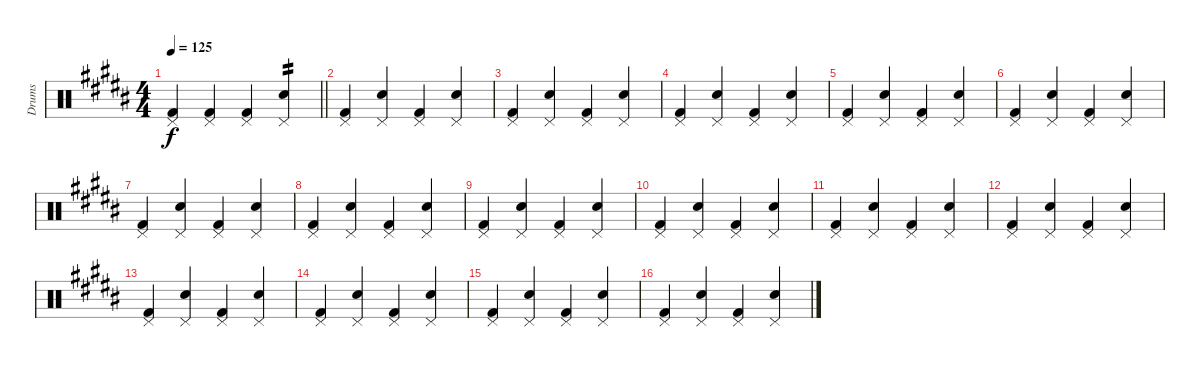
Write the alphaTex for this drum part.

\track ("Drums" "Drums") {instrument percussion}
\staff {score}
\articulation defaults
\ts (4 4)
\tempo 125
\clef neutral
\barLineRight lightlight
\ks b
("Kick (hit) 2" "Pedal Hi-Hat (hit)").4{dy f} ("Kick (hit) 2" "Pedal Hi-Hat (hit)").4 ("Kick (hit) 2" "Pedal Hi-Hat (hit)").4 ("Snare (hit) 2" "Pedal Hi-Hat (hit)").4{tp 2} |
("Kick (hit) 2" "Pedal Hi-Hat (hit)").4 ("Snare (hit) 2" "Pedal Hi-Hat (hit)").4 ("Kick (hit) 2" "Pedal Hi-Hat (hit)").4 ("Snare (hit) 2" "Pedal Hi-Hat (hit)").4 |
("Kick (hit) 2" "Pedal Hi-Hat (hit)").4 ("Snare (hit) 2" "Pedal Hi-Hat (hit)").4 ("Kick (hit) 2" "Pedal Hi-Hat (hit)").4 ("Snare (hit) 2" "Pedal Hi-Hat (hit)").4 |
("Kick (hit) 2" "Pedal Hi-Hat (hit)").4 ("Snare (hit) 2" "Pedal Hi-Hat (hit)").4 ("Kick (hit) 2" "Pedal Hi-Hat (hit)").4 ("Snare (hit) 2" "Pedal Hi-Hat (hit)").4 |
("Kick (hit) 2" "Pedal Hi-Hat (hit)").4 ("Snare (hit) 2" "Pedal Hi-Hat (hit)").4 ("Kick (hit) 2" "Pedal Hi-Hat (hit)").4 ("Snare (hit) 2" "Pedal Hi-Hat (hit)").4 |
("Kick (hit) 2" "Pedal Hi-Hat (hit)").4 ("Snare (hit) 2" "Pedal Hi-Hat (hit)").4 ("Kick (hit) 2" "Pedal Hi-Hat (hit)").4 ("Snare (hit) 2" "Pedal Hi-Hat (hit)").4 |
("Kick (hit) 2" "Pedal Hi-Hat (hit)").4 ("Snare (hit) 2" "Pedal Hi-Hat (hit)").4 ("Kick (hit) 2" "Pedal Hi-Hat (hit)").4 ("Snare (hit) 2" "Pedal Hi-Hat (hit)").4 |
("Kick (hit) 2" "Pedal Hi-Hat (hit)").4 ("Snare (hit) 2" "Pedal Hi-Hat (hit)").4 ("Kick (hit) 2" "Pedal Hi-Hat (hit)").4 ("Snare (hit) 2" "Pedal Hi-Hat (hit)").4 |
("Kick (hit) 2" "Pedal Hi-Hat (hit)").4 ("Snare (hit) 2" "Pedal Hi-Hat (hit)").4 ("Kick (hit) 2" "Pedal Hi-Hat (hit)").4 ("Snare (hit) 2" "Pedal Hi-Hat (hit)").4 |
("Kick (hit) 2" "Pedal Hi-Hat (hit)").4 ("Snare (hit) 2" "Pedal Hi-Hat (hit)").4 ("Kick (hit) 2" "Pedal Hi-Hat (hit)").4 ("Snare (hit) 2" "Pedal Hi-Hat (hit)").4 |
("Kick (hit) 2" "Pedal Hi-Hat (hit)").4 ("Snare (hit) 2" "Pedal Hi-Hat (hit)").4 ("Kick (hit) 2" "Pedal Hi-Hat (hit)").4 ("Snare (hit) 2" "Pedal Hi-Hat (hit)").4 |
("Kick (hit) 2" "Pedal Hi-Hat (hit)").4 ("Snare (hit) 2" "Pedal Hi-Hat (hit)").4 ("Kick (hit) 2" "Pedal Hi-Hat (hit)").4 ("Snare (hit) 2" "Pedal Hi-Hat (hit)").4 |
("Kick (hit) 2" "Pedal Hi-Hat (hit)").4 ("Snare (hit) 2" "Pedal Hi-Hat (hit)").4 ("Kick (hit) 2" "Pedal Hi-Hat (hit)").4 ("Snare (hit) 2" "Pedal Hi-Hat (hit)").4 |
("Kick (hit) 2" "Pedal Hi-Hat (hit)").4 ("Snare (hit) 2" "Pedal Hi-Hat (hit)").4 ("Kick (hit) 2" "Pedal Hi-Hat (hit)").4 ("Snare (hit) 2" "Pedal Hi-Hat (hit)").4 |
("Kick (hit) 2" "Pedal Hi-Hat (hit)").4 ("Snare (hit) 2" "Pedal Hi-Hat (hit)").4 ("Kick (hit) 2" "Pedal Hi-Hat (hit)").4 ("Snare (hit) 2" "Pedal Hi-Hat (hit)").4 |
("Kick (hit) 2" "Pedal Hi-Hat (hit)").4 ("Snare (hit) 2" "Pedal Hi-Hat (hit)").4 ("Kick (hit) 2" "Pedal Hi-Hat (hit)").4 ("Snare (hit) 2" "Pedal Hi-Hat (hit)").4
